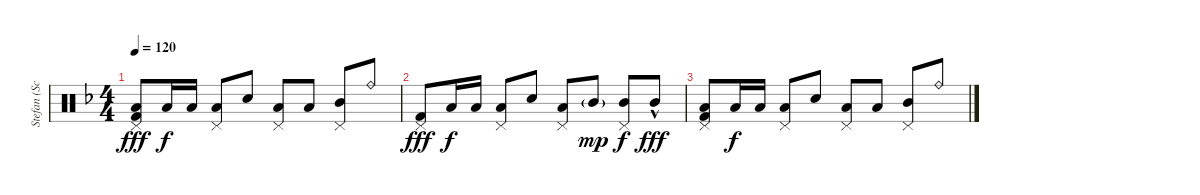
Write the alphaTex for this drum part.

\track ("Stefan (Schlagzeug)" "Stefan (Sc") {instrument percussion}
\staff {score}
\articulation defaults
\ts (4 4)
\tempo 120
\clef neutral
\ks f
("Low Tom (hit)" "Kick (hit) 2" "Pedal Hi-Hat (hit)").8{dy fff} "Low Tom (hit)".16{dy f} "Low Tom (hit)".16 ("Low Tom (hit)" "Pedal Hi-Hat (hit)").8 "Snare (hit) 2".8 ("Low Tom (hit)" "Pedal Hi-Hat (hit)").8 "Low Tom (hit)".8 ("Mid Tom (hit)" "Pedal Hi-Hat (hit)").8 "Ride (bell)".8 |
("Kick (hit) 2" "Pedal Hi-Hat (hit)").8{dy fff} "Low Tom (hit)".16{dy f} "Low Tom (hit)".16 ("Low Tom (hit)" "Pedal Hi-Hat (hit)").8 "Snare (hit) 2".8 ("Low Tom (hit)" "Pedal Hi-Hat (hit)").8 "Mid Tom (hit)"{g}.8{dy mp} ("Mid Tom (hit)" "Pedal Hi-Hat (hit)").8{dy f} "Mid Tom (hit)"{hac}.8{dy fff} |
("Low Tom (hit)" "Kick (hit) 2" "Pedal Hi-Hat (hit)").8 "Low Tom (hit)".16{dy f} "Low Tom (hit)".16 ("Low Tom (hit)" "Pedal Hi-Hat (hit)").8 "Snare (hit) 2".8 ("Low Tom (hit)" "Pedal Hi-Hat (hit)").8 "Low Tom (hit)".8 ("Mid Tom (hit)" "Pedal Hi-Hat (hit)").8 "Ride (bell)".8
